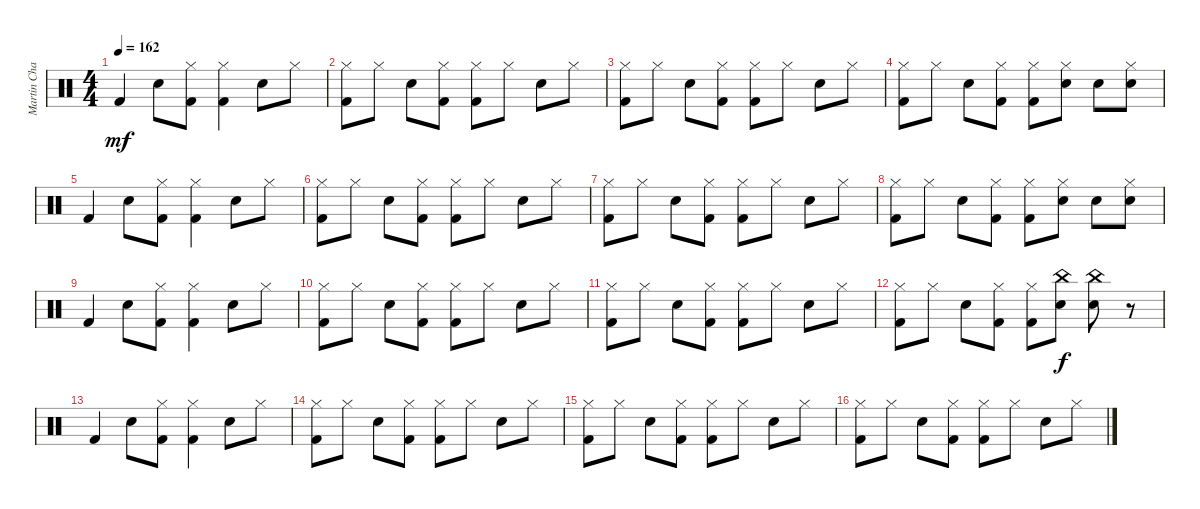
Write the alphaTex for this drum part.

\track ("Martin Chambers" "Martin Cha") {instrument percussion}
\staff {score}
\articulation defaults
\ts (4 4)
\tempo 162
\clef neutral
\ks c "Kick (hit) 2".4{dy mf} "Snare (hit) 2".8
("Hi-Hat (closed)" "Kick (hit) 2").8 ("Hi-Hat (closed)" "Kick (hit) 2").4 "Snare (hit) 2".8 "Hi-Hat (closed)".8 |
("Hi-Hat (closed)" "Kick (hit) 2").8 "Hi-Hat (closed)".8 "Snare (hit) 2".8 ("Hi-Hat (closed)" "Kick (hit) 2").8 ("Hi-Hat (closed)" "Kick (hit) 2").8 "Hi-Hat (closed)".8 "Snare (hit) 2".8 "Hi-Hat (closed)".8 |
("Hi-Hat (closed)" "Kick (hit) 2").8 "Hi-Hat (closed)".8 "Snare (hit) 2".8 ("Hi-Hat (closed)" "Kick (hit) 2").8 ("Hi-Hat (closed)" "Kick (hit) 2").8 "Hi-Hat (closed)".8 "Snare (hit) 2".8 "Hi-Hat (closed)".8 |
("Hi-Hat (closed)" "Kick (hit) 2").8 "Hi-Hat (closed)".8 "Snare (hit) 2".8 ("Hi-Hat (closed)" "Kick (hit) 2").8 ("Hi-Hat (closed)" "Kick (hit) 2").8 ("Hi-Hat (closed)" "Snare (hit) 2").8 "Snare (hit) 2".8 ("Hi-Hat (closed)" "Snare (hit) 2").8 |
"Kick (hit) 2".4 "Snare (hit) 2".8 ("Hi-Hat (closed)" "Kick (hit) 2").8 ("Hi-Hat (closed)" "Kick (hit) 2").4 "Snare (hit) 2".8 "Hi-Hat (closed)".8 |
("Hi-Hat (closed)" "Kick (hit) 2").8 "Hi-Hat (closed)".8 "Snare (hit) 2".8 ("Hi-Hat (closed)" "Kick (hit) 2").8 ("Hi-Hat (closed)" "Kick (hit) 2").8 "Hi-Hat (closed)".8 "Snare (hit) 2".8 "Hi-Hat (closed)".8 |
("Hi-Hat (closed)" "Kick (hit) 2").8 "Hi-Hat (closed)".8 "Snare (hit) 2".8 ("Hi-Hat (closed)" "Kick (hit) 2").8 ("Hi-Hat (closed)" "Kick (hit) 2").8 "Hi-Hat (closed)".8 "Snare (hit) 2".8 "Hi-Hat (closed)".8 |
("Hi-Hat (closed)" "Kick (hit) 2").8 "Hi-Hat (closed)".8 "Snare (hit) 2".8 ("Hi-Hat (closed)" "Kick (hit) 2").8 ("Hi-Hat (closed)" "Kick (hit) 2").8 ("Hi-Hat (closed)" "Snare (hit) 2").8 "Snare (hit) 2".8 ("Hi-Hat (closed)" "Snare (hit) 2").8 |
"Kick (hit) 2".4 "Snare (hit) 2".8 ("Hi-Hat (closed)" "Kick (hit) 2").8 ("Hi-Hat (closed)" "Kick (hit) 2").4 "Snare (hit) 2".8 "Hi-Hat (closed)".8 |
("Hi-Hat (closed)" "Kick (hit) 2").8 "Hi-Hat (closed)".8 "Snare (hit) 2".8 ("Hi-Hat (closed)" "Kick (hit) 2").8 ("Hi-Hat (closed)" "Kick (hit) 2").8 "Hi-Hat (closed)".8 "Snare (hit) 2".8 "Hi-Hat (closed)".8 |
("Hi-Hat (closed)" "Kick (hit) 2").8 "Hi-Hat (closed)".8 "Snare (hit) 2".8 ("Hi-Hat (closed)" "Kick (hit) 2").8 ("Hi-Hat (closed)" "Kick (hit) 2").8 "Hi-Hat (closed)".8 "Snare (hit) 2".8 "Hi-Hat (closed)".8 |
("Hi-Hat (closed)" "Kick (hit) 2").8 "Hi-Hat (closed)".8 "Snare (hit) 2".8 ("Hi-Hat (closed)" "Kick (hit) 2").8 ("Hi-Hat (closed)" "Kick (hit) 2").8 ("China (hit)" "Snare (hit) 2").8{dy f} ("China (hit)" "Snare (hit) 2").8 r.8 |
"Kick (hit) 2".4 "Snare (hit) 2".8 ("Hi-Hat (closed)" "Kick (hit) 2").8 ("Hi-Hat (closed)" "Kick (hit) 2").4 "Snare (hit) 2".8 "Hi-Hat (closed)".8 |
("Hi-Hat (closed)" "Kick (hit) 2").8 "Hi-Hat (closed)".8 "Snare (hit) 2".8 ("Hi-Hat (closed)" "Kick (hit) 2").8 ("Hi-Hat (closed)" "Kick (hit) 2").8 "Hi-Hat (closed)".8 "Snare (hit) 2".8 "Hi-Hat (closed)".8 |
("Hi-Hat (closed)" "Kick (hit) 2").8 "Hi-Hat (closed)".8 "Snare (hit) 2".8 ("Hi-Hat (closed)" "Kick (hit) 2").8 ("Hi-Hat (closed)" "Kick (hit) 2").8 "Hi-Hat (closed)".8 "Snare (hit) 2".8 "Hi-Hat (closed)".8 |
("Hi-Hat (closed)" "Kick (hit) 2").8 "Hi-Hat (closed)".8 "Snare (hit) 2".8 ("Hi-Hat (closed)" "Kick (hit) 2").8 ("Hi-Hat (closed)" "Kick (hit) 2").8 "Hi-Hat (closed)".8 "Snare (hit) 2".8 "Hi-Hat (closed)".8
